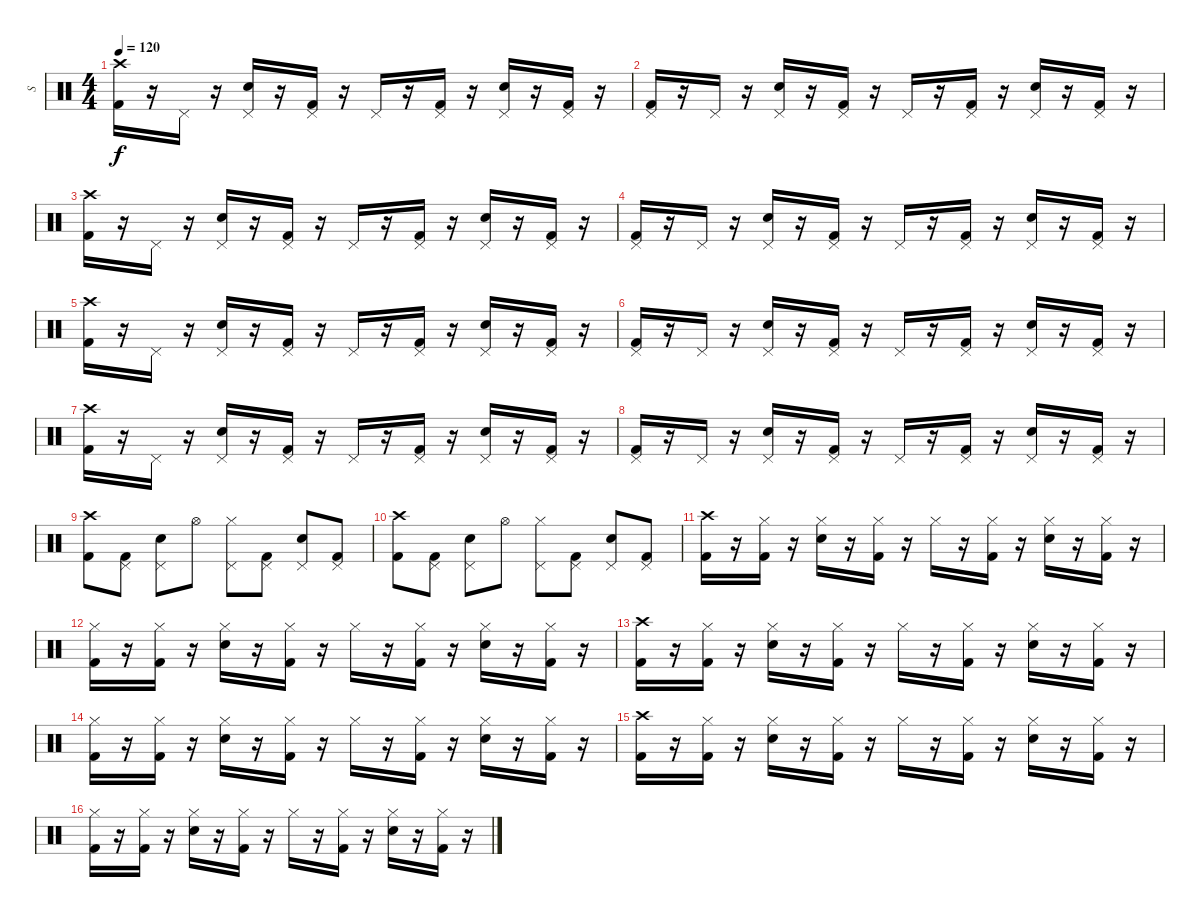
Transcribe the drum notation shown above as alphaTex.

\track ("  S" "  S") {instrument percussion}
\staff {score}
\articulation defaults
\ts (4 4)
\tempo 120
\clef neutral
\ks c
("Crash high (hit)" "Kick (hit) 2").16{dy f} r.16 "Pedal Hi-Hat (hit)".16 r.16 ("Pedal Hi-Hat (hit)" "Snare (hit) 2").16 r.16 ("Pedal Hi-Hat (hit)" "Kick (hit) 2").16 r.16 "Pedal Hi-Hat (hit)".16 r.16 ("Pedal Hi-Hat (hit)" "Kick (hit) 2").16 r.16 ("Pedal Hi-Hat (hit)" "Snare (hit) 2").16 r.16 ("Pedal Hi-Hat (hit)" "Kick (hit) 2").16 r.16 |
("Pedal Hi-Hat (hit)" "Kick (hit) 2").16 r.16 "Pedal Hi-Hat (hit)".16 r.16 ("Pedal Hi-Hat (hit)" "Snare (hit) 2").16 r.16 ("Pedal Hi-Hat (hit)" "Kick (hit) 2").16 r.16 "Pedal Hi-Hat (hit)".16 r.16 ("Pedal Hi-Hat (hit)" "Kick (hit) 2").16 r.16 ("Pedal Hi-Hat (hit)" "Snare (hit) 2").16 r.16 ("Pedal Hi-Hat (hit)" "Kick (hit) 2").16 r.16 |
("Crash high (hit)" "Kick (hit) 2").16 r.16 "Pedal Hi-Hat (hit)".16 r.16 ("Pedal Hi-Hat (hit)" "Snare (hit) 2").16 r.16 ("Pedal Hi-Hat (hit)" "Kick (hit) 2").16 r.16 "Pedal Hi-Hat (hit)".16 r.16 ("Pedal Hi-Hat (hit)" "Kick (hit) 2").16 r.16 ("Pedal Hi-Hat (hit)" "Snare (hit) 2").16 r.16 ("Pedal Hi-Hat (hit)" "Kick (hit) 2").16 r.16 |
("Pedal Hi-Hat (hit)" "Kick (hit) 2").16 r.16 "Pedal Hi-Hat (hit)".16 r.16 ("Pedal Hi-Hat (hit)" "Snare (hit) 2").16 r.16 ("Pedal Hi-Hat (hit)" "Kick (hit) 2").16 r.16 "Pedal Hi-Hat (hit)".16 r.16 ("Pedal Hi-Hat (hit)" "Kick (hit) 2").16 r.16 ("Pedal Hi-Hat (hit)" "Snare (hit) 2").16 r.16 ("Pedal Hi-Hat (hit)" "Kick (hit) 2").16 r.16 |
("Crash high (hit)" "Kick (hit) 2").16 r.16 "Pedal Hi-Hat (hit)".16 r.16 ("Pedal Hi-Hat (hit)" "Snare (hit) 2").16 r.16 ("Pedal Hi-Hat (hit)" "Kick (hit) 2").16 r.16 "Pedal Hi-Hat (hit)".16 r.16 ("Pedal Hi-Hat (hit)" "Kick (hit) 2").16 r.16 ("Pedal Hi-Hat (hit)" "Snare (hit) 2").16 r.16 ("Pedal Hi-Hat (hit)" "Kick (hit) 2").16 r.16 |
("Pedal Hi-Hat (hit)" "Kick (hit) 2").16 r.16 "Pedal Hi-Hat (hit)".16 r.16 ("Pedal Hi-Hat (hit)" "Snare (hit) 2").16 r.16 ("Pedal Hi-Hat (hit)" "Kick (hit) 2").16 r.16 "Pedal Hi-Hat (hit)".16 r.16 ("Pedal Hi-Hat (hit)" "Kick (hit) 2").16 r.16 ("Pedal Hi-Hat (hit)" "Snare (hit) 2").16 r.16 ("Pedal Hi-Hat (hit)" "Kick (hit) 2").16 r.16 |
("Crash high (hit)" "Kick (hit) 2").16 r.16 "Pedal Hi-Hat (hit)".16 r.16 ("Pedal Hi-Hat (hit)" "Snare (hit) 2").16 r.16 ("Pedal Hi-Hat (hit)" "Kick (hit) 2").16 r.16 "Pedal Hi-Hat (hit)".16 r.16 ("Pedal Hi-Hat (hit)" "Kick (hit) 2").16 r.16 ("Pedal Hi-Hat (hit)" "Snare (hit) 2").16 r.16 ("Pedal Hi-Hat (hit)" "Kick (hit) 2").16 r.16 |
("Pedal Hi-Hat (hit)" "Kick (hit) 2").16 r.16 "Pedal Hi-Hat (hit)".16 r.16 ("Pedal Hi-Hat (hit)" "Snare (hit) 2").16 r.16 ("Pedal Hi-Hat (hit)" "Kick (hit) 2").16 r.16 "Pedal Hi-Hat (hit)".16 r.16 ("Pedal Hi-Hat (hit)" "Kick (hit) 2").16 r.16 ("Pedal Hi-Hat (hit)" "Snare (hit) 2").16 r.16 ("Pedal Hi-Hat (hit)" "Kick (hit) 2").16 r.16 |
("Crash high (hit)" "Kick (hit) 2").8 ("Pedal Hi-Hat (hit)" "Kick (hit) 2").8 ("Pedal Hi-Hat (hit)" "Snare (hit) 2").8 "Hi-Hat (open)".8 ("Hi-Hat (closed)" "Pedal Hi-Hat (hit)").8 ("Pedal Hi-Hat (hit)" "Kick (hit) 2").8 ("Pedal Hi-Hat (hit)" "Snare (hit) 2").8 ("Pedal Hi-Hat (hit)" "Kick (hit) 2").8 |
("Crash high (hit)" "Kick (hit) 2").8 ("Pedal Hi-Hat (hit)" "Kick (hit) 2").8 ("Pedal Hi-Hat (hit)" "Snare (hit) 2").8 "Hi-Hat (open)".8 ("Hi-Hat (closed)" "Pedal Hi-Hat (hit)").8 ("Pedal Hi-Hat (hit)" "Kick (hit) 2").8 ("Pedal Hi-Hat (hit)" "Snare (hit) 2").8 ("Pedal Hi-Hat (hit)" "Kick (hit) 2").8 |
("Crash high (hit)" "Kick (hit) 2").16 r.16 ("Hi-Hat (closed)" "Kick (hit) 2").16 r.16 ("Hi-Hat (closed)" "Snare (hit) 2").16 r.16 ("Hi-Hat (closed)" "Kick (hit) 2").16 r.16 "Hi-Hat (closed)".16 r.16 ("Hi-Hat (closed)" "Kick (hit) 2").16 r.16 ("Hi-Hat (closed)" "Snare (hit) 2").16 r.16 ("Hi-Hat (closed)" "Kick (hit) 2").16 r.16 |
("Hi-Hat (closed)" "Kick (hit) 2").16 r.16 ("Hi-Hat (closed)" "Kick (hit) 2").16 r.16 ("Hi-Hat (closed)" "Snare (hit) 2").16 r.16 ("Hi-Hat (closed)" "Kick (hit) 2").16 r.16 "Hi-Hat (closed)".16 r.16 ("Hi-Hat (closed)" "Kick (hit) 2").16 r.16 ("Hi-Hat (closed)" "Snare (hit) 2").16 r.16 ("Hi-Hat (closed)" "Kick (hit) 2").16 r.16 |
("Crash high (hit)" "Kick (hit) 2").16 r.16 ("Hi-Hat (closed)" "Kick (hit) 2").16 r.16 ("Hi-Hat (closed)" "Snare (hit) 2").16 r.16 ("Hi-Hat (closed)" "Kick (hit) 2").16 r.16 "Hi-Hat (closed)".16 r.16 ("Hi-Hat (closed)" "Kick (hit) 2").16 r.16 ("Hi-Hat (closed)" "Snare (hit) 2").16 r.16 ("Hi-Hat (closed)" "Kick (hit) 2").16 r.16 |
("Hi-Hat (closed)" "Kick (hit) 2").16 r.16 ("Hi-Hat (closed)" "Kick (hit) 2").16 r.16 ("Hi-Hat (closed)" "Snare (hit) 2").16 r.16 ("Hi-Hat (closed)" "Kick (hit) 2").16 r.16 "Hi-Hat (closed)".16 r.16 ("Hi-Hat (closed)" "Kick (hit) 2").16 r.16 ("Hi-Hat (closed)" "Snare (hit) 2").16 r.16 ("Hi-Hat (closed)" "Kick (hit) 2").16 r.16 |
("Crash high (hit)" "Kick (hit) 2").16 r.16 ("Hi-Hat (closed)" "Kick (hit) 2").16 r.16 ("Hi-Hat (closed)" "Snare (hit) 2").16 r.16 ("Hi-Hat (closed)" "Kick (hit) 2").16 r.16 "Hi-Hat (closed)".16 r.16 ("Hi-Hat (closed)" "Kick (hit) 2").16 r.16 ("Hi-Hat (closed)" "Snare (hit) 2").16 r.16 ("Hi-Hat (closed)" "Kick (hit) 2").16 r.16 |
("Hi-Hat (closed)" "Kick (hit) 2").16 r.16 ("Hi-Hat (closed)" "Kick (hit) 2").16 r.16 ("Hi-Hat (closed)" "Snare (hit) 2").16 r.16 ("Hi-Hat (closed)" "Kick (hit) 2").16 r.16 "Hi-Hat (closed)".16 r.16 ("Hi-Hat (closed)" "Kick (hit) 2").16 r.16 ("Hi-Hat (closed)" "Snare (hit) 2").16 r.16 ("Hi-Hat (closed)" "Kick (hit) 2").16 r.16
